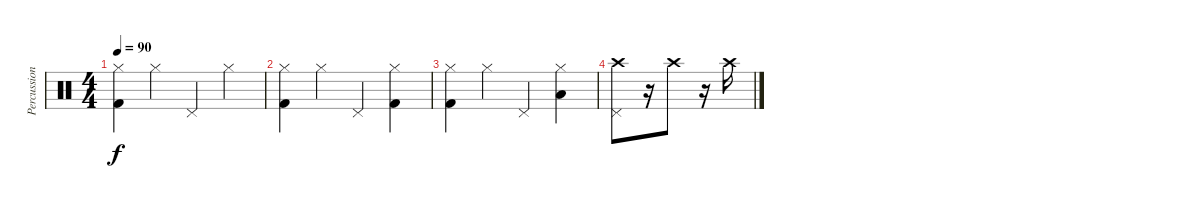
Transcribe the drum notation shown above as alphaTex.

\track ("Percussions" "Percussion") {instrument percussion}
\staff {score}
\articulation defaults
\ts (4 4)
\tempo 90
\clef neutral
\ks c
("Hi-Hat (closed)" "Kick (hit) 2").4{dy f} "Hi-Hat (closed)".4 "Pedal Hi-Hat (hit)".4 "Hi-Hat (closed)".4 |
("Hi-Hat (closed)" "Kick (hit) 2").4 "Hi-Hat (closed)".4 "Pedal Hi-Hat (hit)".4 ("Hi-Hat (closed)" "Kick (hit) 2").4 |
("Hi-Hat (closed)" "Kick (hit) 2").4 "Hi-Hat (closed)".4 "Pedal Hi-Hat (hit)".4 ("Hi-Hat (closed)" "Low Floor Tom (hit)").4 |
("Pedal Hi-Hat (hit)" "Crash high (hit)").8 r.16 "Crash high (hit)".8 r.16 "Crash high (hit)".16
